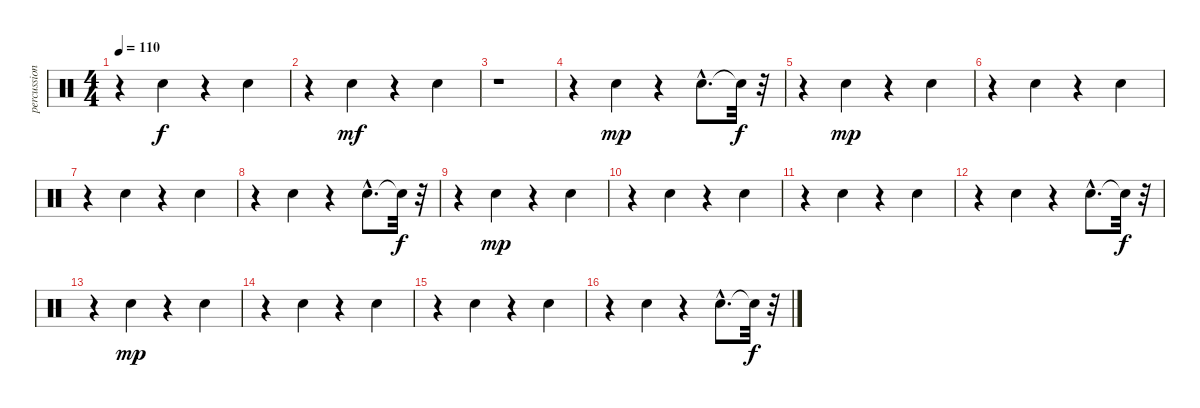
\track ("percussions 3" "percussion") {instrument percussion}
\staff {score}
\articulation defaults
\ts (4 4)
\tempo 110
\clef neutral
\ks c
r.4{dy f} "Electric Snare (hit)".4 r.4 "Electric Snare (hit)".4 |
r.4 "Electric Snare (hit)".4{dy mf} r.4 "Electric Snare (hit)".4 |
r.1 |
r.4 "Electric Snare (hit)".4{dy mp} r.4 "Electric Snare (hit)"{hac}.8{d} "Snare (hit)"{t}.32{dy f} r.32 |
r.4 "Electric Snare (hit)".4{dy mp} r.4 "Electric Snare (hit)".4 |
r.4 "Electric Snare (hit)".4 r.4 "Electric Snare (hit)".4 |
r.4 "Electric Snare (hit)".4 r.4 "Electric Snare (hit)".4 |
r.4 "Electric Snare (hit)".4 r.4 "Electric Snare (hit)"{hac}.8{d} "Snare (hit)"{t}.32{dy f} r.32 |
r.4 "Electric Snare (hit)".4{dy mp} r.4 "Electric Snare (hit)".4 |
r.4 "Electric Snare (hit)".4 r.4 "Electric Snare (hit)".4 |
r.4 "Electric Snare (hit)".4 r.4 "Electric Snare (hit)".4 |
r.4 "Electric Snare (hit)".4 r.4 "Electric Snare (hit)"{hac}.8{d} "Snare (hit)"{t}.32{dy f} r.32 |
r.4 "Electric Snare (hit)".4{dy mp} r.4 "Electric Snare (hit)".4 |
r.4 "Electric Snare (hit)".4 r.4 "Electric Snare (hit)".4 |
r.4 "Electric Snare (hit)".4 r.4 "Electric Snare (hit)".4 |
r.4 "Electric Snare (hit)".4 r.4 "Electric Snare (hit)"{hac}.8{d} "Snare (hit)"{t}.32{dy f} r.32
